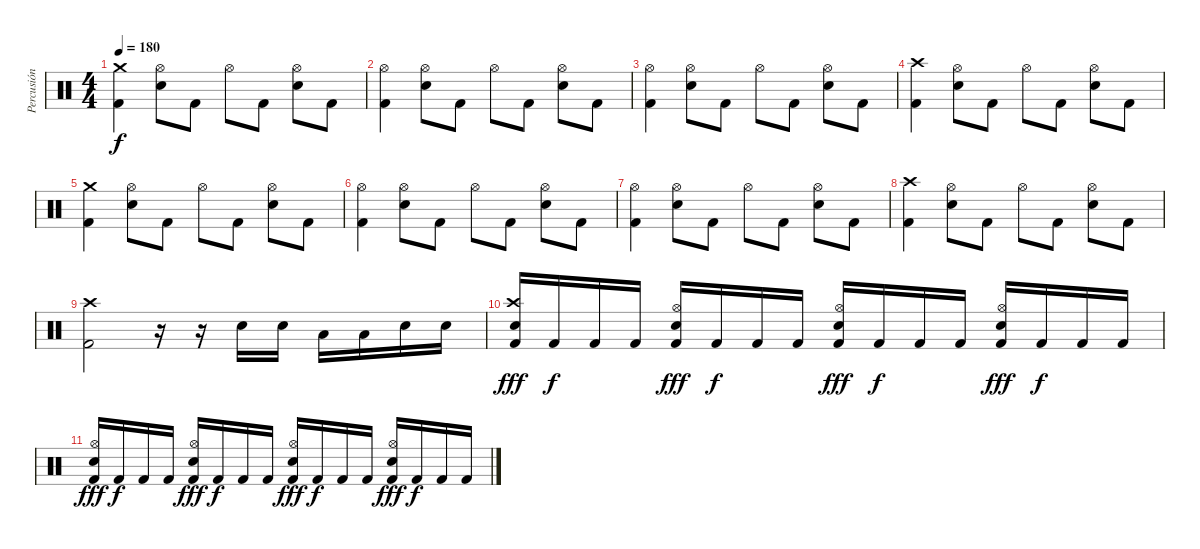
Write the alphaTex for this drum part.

\track ("Percusión" "Percusión") {instrument percussion}
\staff {score}
\articulation defaults
\ts (4 4)
\tempo 180
\clef neutral
\ks c
("Crash medium (hit)" "Kick (hit) 2").4{dy f} ("Hi-Hat (open)" "Snare (hit) 2").8 "Kick (hit) 2".8 "Hi-Hat (open)".8 "Kick (hit) 2".8 ("Hi-Hat (open)" "Snare (hit) 2").8 "Kick (hit) 2".8 |
("Hi-Hat (open)" "Kick (hit) 2").4 ("Hi-Hat (open)" "Snare (hit) 2").8 "Kick (hit) 2".8 "Hi-Hat (open)".8 "Kick (hit) 2".8 ("Hi-Hat (open)" "Snare (hit) 2").8 "Kick (hit) 2".8 |
("Hi-Hat (open)" "Kick (hit) 2").4 ("Hi-Hat (open)" "Snare (hit) 2").8 "Kick (hit) 2".8 "Hi-Hat (open)".8 "Kick (hit) 2".8 ("Hi-Hat (open)" "Snare (hit) 2").8 "Kick (hit) 2".8 |
("Crash high (hit)" "Kick (hit) 2").4 ("Hi-Hat (open)" "Snare (hit) 2").8 "Kick (hit) 2".8 "Hi-Hat (open)".8 "Kick (hit) 2".8 ("Hi-Hat (open)" "Snare (hit) 2").8 "Kick (hit) 2".8 |
("Crash medium (hit)" "Kick (hit) 2").4 ("Hi-Hat (open)" "Snare (hit) 2").8 "Kick (hit) 2".8 "Hi-Hat (open)".8 "Kick (hit) 2".8 ("Hi-Hat (open)" "Snare (hit) 2").8 "Kick (hit) 2".8 |
("Hi-Hat (open)" "Kick (hit) 2").4 ("Hi-Hat (open)" "Snare (hit) 2").8 "Kick (hit) 2".8 "Hi-Hat (open)".8 "Kick (hit) 2".8 ("Hi-Hat (open)" "Snare (hit) 2").8 "Kick (hit) 2".8 |
("Hi-Hat (open)" "Kick (hit) 2").4 ("Hi-Hat (open)" "Snare (hit) 2").8 "Kick (hit) 2".8 "Hi-Hat (open)".8 "Kick (hit) 2".8 ("Hi-Hat (open)" "Snare (hit) 2").8 "Kick (hit) 2".8 |
("Crash high (hit)" "Kick (hit) 2").4 ("Hi-Hat (open)" "Snare (hit) 2").8 "Kick (hit) 2".8 "Hi-Hat (open)".8 "Kick (hit) 2".8 ("Hi-Hat (open)" "Snare (hit) 2").8 "Kick (hit) 2".8 |
("Crash high (hit)" "Kick (hit) 2").2 r.16 r.16 "Snare (hit) 2".16 "Snare (hit) 2".16 "Low Tom (hit)".16 "Low Tom (hit)".16 "Snare (hit) 2".16 "Snare (hit) 2".16 |
("Kick (hit) 2" "Electric Snare (hit)" "Crash high (hit)").16{dy fff} "Kick (hit) 2".16{dy f} "Kick (hit) 2".16 "Kick (hit) 2".16 ("Kick (hit) 2" "Electric Snare (hit)" "Hi-Hat (open)").16{dy fff} "Kick (hit) 2".16{dy f} "Kick (hit) 2".16 "Kick (hit) 2".16 ("Kick (hit) 2" "Electric Snare (hit)" "Hi-Hat (open)").16{dy fff} "Kick (hit) 2".16{dy f} "Kick (hit) 2".16 "Kick (hit) 2".16 ("Kick (hit) 2" "Electric Snare (hit)" "Hi-Hat (open)").16{dy fff} "Kick (hit) 2".16{dy f} "Kick (hit) 2".16 "Kick (hit) 2".16 |
("Kick (hit) 2" "Electric Snare (hit)" "Hi-Hat (open)").16{dy fff} "Kick (hit) 2".16{dy f} "Kick (hit) 2".16 "Kick (hit) 2".16 ("Kick (hit) 2" "Electric Snare (hit)" "Hi-Hat (open)").16{dy fff} "Kick (hit) 2".16{dy f} "Kick (hit) 2".16 "Kick (hit) 2".16 ("Kick (hit) 2" "Electric Snare (hit)" "Hi-Hat (open)").16{dy fff} "Kick (hit) 2".16{dy f} "Kick (hit) 2".16 "Kick (hit) 2".16 ("Kick (hit) 2" "Electric Snare (hit)" "Hi-Hat (open)").16{dy fff} "Kick (hit) 2".16{dy f} "Kick (hit) 2".16 "Kick (hit) 2".16
